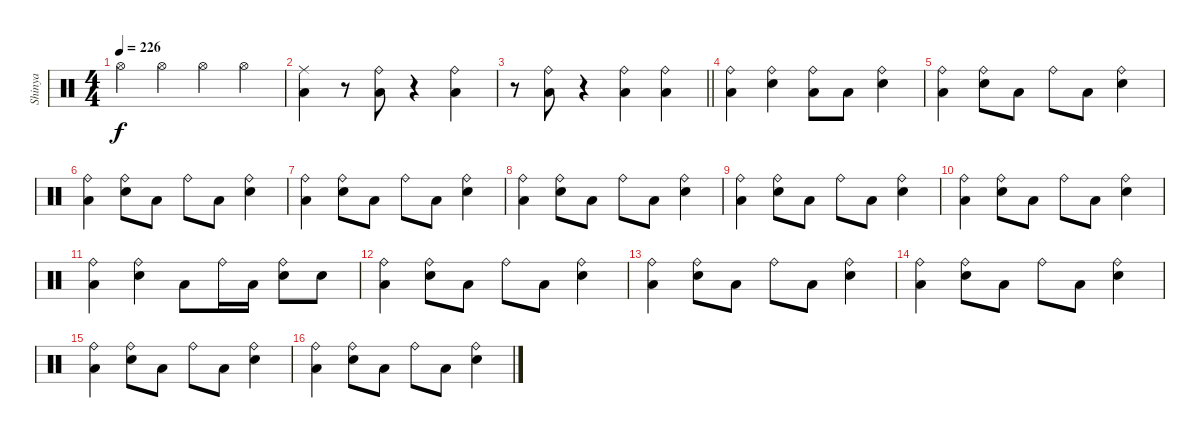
\track ("Shinya" "Shinya") {instrument percussion}
\staff {score}
\articulation defaults
\ts (4 4)
\tempo 226
\clef neutral
\ks c "Hi-Hat (open)".4{dy f} "Hi-Hat (open)".4 "Hi-Hat (open)".4 "Hi-Hat (open)".4
|
("Ride (middle)" "Low Floor Tom (hit)").4 r.8 ("Ride (bell)" "Low Floor Tom (hit)").8 r.4 ("Ride (bell)" "Low Floor Tom (hit)").4 |
\barLineRight lightlight
r.8 ("Ride (bell)" "Low Floor Tom (hit)").8 r.4 ("Ride (bell)" "Low Floor Tom (hit)").4 ("Ride (bell)" "Low Floor Tom (hit)").4 |
("Ride (bell)" "Low Floor Tom (hit)").4 ("Ride (bell)" "Snare (hit) 2").4 ("Ride (bell)" "Low Floor Tom (hit)").8 "Low Floor Tom (hit)".8 ("Ride (bell)" "Snare (hit) 2").4 |
("Ride (bell)" "Low Floor Tom (hit)").4 ("Ride (bell)" "Snare (hit) 2").8 "Low Floor Tom (hit)".8 "Ride (bell)".8 "Low Floor Tom (hit)".8 ("Ride (bell)" "Snare (hit) 2").4 |
("Ride (bell)" "Low Floor Tom (hit)").4 ("Ride (bell)" "Snare (hit) 2").8 "Low Floor Tom (hit)".8 "Ride (bell)".8 "Low Floor Tom (hit)".8 ("Ride (bell)" "Snare (hit) 2").4 |
("Ride (bell)" "Low Floor Tom (hit)").4 ("Ride (bell)" "Snare (hit) 2").8 "Low Floor Tom (hit)".8 "Ride (bell)".8 "Low Floor Tom (hit)".8 ("Ride (bell)" "Snare (hit) 2").4 |
("Ride (bell)" "Low Floor Tom (hit)").4 ("Ride (bell)" "Snare (hit) 2").8 "Low Floor Tom (hit)".8 "Ride (bell)".8 "Low Floor Tom (hit)".8 ("Ride (bell)" "Snare (hit) 2").4 |
("Ride (bell)" "Low Floor Tom (hit)").4 ("Ride (bell)" "Snare (hit) 2").8 "Low Floor Tom (hit)".8 "Ride (bell)".8 "Low Floor Tom (hit)".8 ("Ride (bell)" "Snare (hit) 2").4 |
("Ride (bell)" "Low Floor Tom (hit)").4 ("Ride (bell)" "Snare (hit) 2").8 "Low Floor Tom (hit)".8 "Ride (bell)".8 "Low Floor Tom (hit)".8 ("Ride (bell)" "Snare (hit) 2").4 |
("Ride (bell)" "Low Floor Tom (hit)").4 ("Ride (bell)" "Snare (hit) 2").4 "Low Floor Tom (hit)".8 "Ride (bell)".16 "Low Floor Tom (hit)".16 ("Ride (bell)" "Snare (hit) 2").8 "Snare (hit) 2".8 |
("Ride (bell)" "Low Floor Tom (hit)").4 ("Ride (bell)" "Snare (hit) 2").8 "Low Floor Tom (hit)".8 "Ride (bell)".8 "Low Floor Tom (hit)".8 ("Ride (bell)" "Snare (hit) 2").4 |
("Ride (bell)" "Low Floor Tom (hit)").4 ("Ride (bell)" "Snare (hit) 2").8 "Low Floor Tom (hit)".8 "Ride (bell)".8 "Low Floor Tom (hit)".8 ("Ride (bell)" "Snare (hit) 2").4 |
("Ride (bell)" "Low Floor Tom (hit)").4 ("Ride (bell)" "Snare (hit) 2").8 "Low Floor Tom (hit)".8 "Ride (bell)".8 "Low Floor Tom (hit)".8 ("Ride (bell)" "Snare (hit) 2").4 |
("Ride (bell)" "Low Floor Tom (hit)").4 ("Ride (bell)" "Snare (hit) 2").8 "Low Floor Tom (hit)".8 "Ride (bell)".8 "Low Floor Tom (hit)".8 ("Ride (bell)" "Snare (hit) 2").4 |
("Ride (bell)" "Low Floor Tom (hit)").4 ("Ride (bell)" "Snare (hit) 2").8 "Low Floor Tom (hit)".8 "Ride (bell)".8 "Low Floor Tom (hit)".8 ("Ride (bell)" "Snare (hit) 2").4
